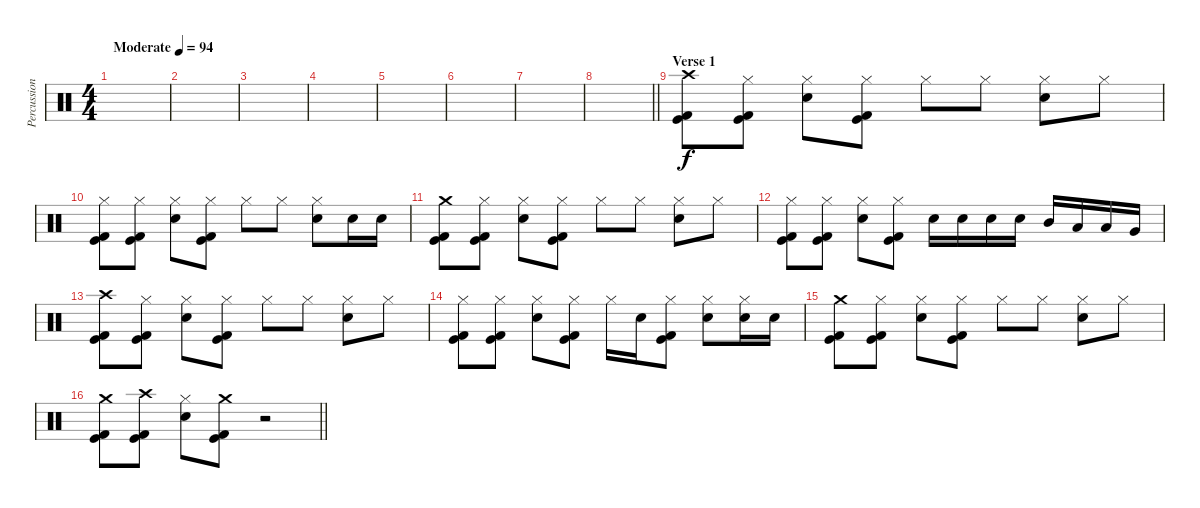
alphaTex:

\track ("Percussion" "Percussion") {instrument percussion}
\staff {score}
\articulation defaults
\ts (4 4)
\tempo (94 "Moderate")
\clef neutral
\ks c
|
|
|
|
|
|
|
\barLineRight lightlight
|
\section ("" "Verse 1")
("Crash high (hit)" "Kick (hit)" "Kick (hit) 2").8 ("Hi-Hat (closed)" "Kick (hit)" "Kick (hit) 2").8 ("Hi-Hat (closed)" "Electric Snare (hit)").8 ("Hi-Hat (closed)" "Kick (hit)" "Kick (hit) 2").8 "Hi-Hat (closed)".8 "Hi-Hat (closed)".8 ("Hi-Hat (closed)" "Electric Snare (hit)").8 "Hi-Hat (closed)".8 |
("Hi-Hat (closed)" "Kick (hit)" "Kick (hit) 2").8 ("Hi-Hat (closed)" "Kick (hit)" "Kick (hit) 2").8 ("Hi-Hat (closed)" "Electric Snare (hit)").8 ("Hi-Hat (closed)" "Kick (hit)" "Kick (hit) 2").8 "Hi-Hat (closed)".8 "Hi-Hat (closed)".8 ("Hi-Hat (closed)" "Electric Snare (hit)").8 "Electric Snare (hit)".16 "Electric Snare (hit)".16 |
("Crash medium (hit)" "Kick (hit)" "Kick (hit) 2").8 ("Hi-Hat (closed)" "Kick (hit)" "Kick (hit) 2").8 ("Hi-Hat (closed)" "Electric Snare (hit)").8 ("Hi-Hat (closed)" "Kick (hit)" "Kick (hit) 2").8 "Hi-Hat (closed)".8 "Hi-Hat (closed)".8 ("Hi-Hat (closed)" "Electric Snare (hit)").8 "Hi-Hat (closed)".8 |
("Hi-Hat (closed)" "Kick (hit)" "Kick (hit) 2").8 ("Hi-Hat (closed)" "Kick (hit)" "Kick (hit) 2").8 ("Hi-Hat (closed)" "Electric Snare (hit)").8 ("Hi-Hat (closed)" "Kick (hit)" "Kick (hit) 2").8 "Electric Snare (hit)".16 "Electric Snare (hit)".16 "Electric Snare (hit)".16 "Electric Snare (hit)".16 "Mid Tom (hit)".16 "Low Tom (hit)".16 "Low Tom (hit)".16 "Very Low Tom (hit)".16 |
("Crash high (hit)" "Kick (hit)" "Kick (hit) 2").8 ("Hi-Hat (closed)" "Kick (hit)" "Kick (hit) 2").8 ("Hi-Hat (closed)" "Electric Snare (hit)").8 ("Hi-Hat (closed)" "Kick (hit)" "Kick (hit) 2").8 "Hi-Hat (closed)".8 "Hi-Hat (closed)".8 ("Hi-Hat (closed)" "Electric Snare (hit)").8 "Hi-Hat (closed)".8 |
("Hi-Hat (closed)" "Kick (hit)" "Kick (hit) 2").8 ("Hi-Hat (closed)" "Kick (hit)" "Kick (hit) 2").8 ("Hi-Hat (closed)" "Electric Snare (hit)").8 ("Hi-Hat (closed)" "Kick (hit)" "Kick (hit) 2").8 "Hi-Hat (closed)".16 "Electric Snare (hit)".16 ("Hi-Hat (closed)" "Kick (hit)" "Kick (hit) 2").8 ("Hi-Hat (closed)" "Electric Snare (hit)").8 ("Hi-Hat (closed)" "Electric Snare (hit)").16 "Electric Snare (hit)".16 |
("Crash medium (hit)" "Kick (hit)" "Kick (hit) 2").8 ("Hi-Hat (closed)" "Kick (hit)" "Kick (hit) 2").8 ("Hi-Hat (closed)" "Electric Snare (hit)").8 ("Hi-Hat (closed)" "Kick (hit)" "Kick (hit) 2").8 "Hi-Hat (closed)".8 "Hi-Hat (closed)".8 ("Hi-Hat (closed)" "Electric Snare (hit)").8 "Hi-Hat (closed)".8 |
\barLineRight lightlight
("Crash medium (hit)" "Kick (hit)" "Kick (hit) 2").8 ("Crash high (hit)" "Kick (hit)" "Kick (hit) 2").8 ("Hi-Hat (closed)" "Electric Snare (hit)").8 ("Crash medium (hit)" "Kick (hit)" "Kick (hit) 2").8 r.2
